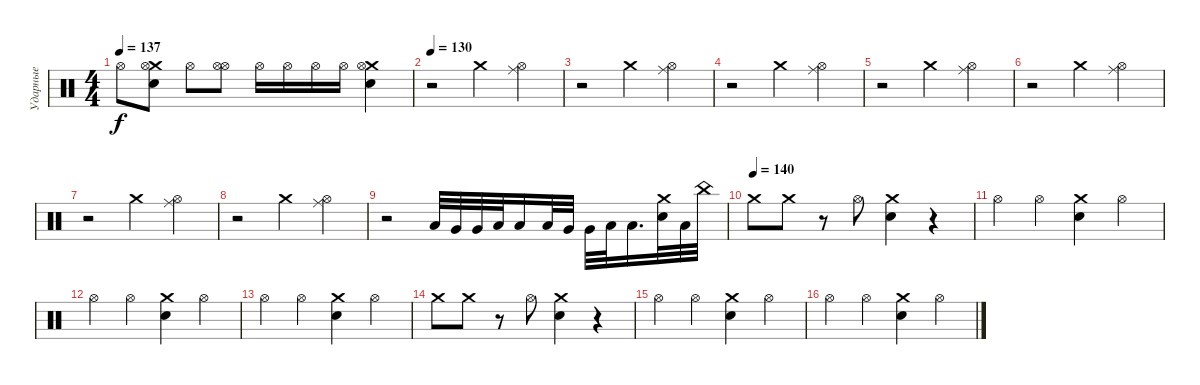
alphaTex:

\track ("Ударные" "Ударные") {instrument percussion}
\staff {score}
\articulation defaults
\ts (4 4)
\tempo 137
\clef neutral
\ks c "Hi-Hat (open)".8{dy f}
("Crash medium (hit)" "Hi-Hat (open)" "Electric Snare (hit)").8 "Hi-Hat (open)".8 ("Hi-Hat (open)" "Hi-Hat (open)").8 "Hi-Hat (open)".16 "Hi-Hat (open)".16 "Hi-Hat (open)".16 "Hi-Hat (open)".16 ("Crash medium (hit)" "Hi-Hat (open)" "Electric Snare (hit)").4 |
\tempo 130
r.2 "Crash medium (hit)".4 ("Ride (middle)" "Hi-Hat (open)").4 |
r.2 "Crash medium (hit)".4 ("Ride (middle)" "Hi-Hat (open)").4 |
r.2 "Crash medium (hit)".4 ("Ride (middle)" "Hi-Hat (open)").4 |
r.2 "Crash medium (hit)".4 ("Ride (middle)" "Hi-Hat (open)").4 |
r.2 "Crash medium (hit)".4 ("Ride (middle)" "Hi-Hat (open)").4 |
r.2 "Crash medium (hit)".4 ("Ride (middle)" "Hi-Hat (open)").4 |
r.2 "Crash medium (hit)".4 ("Ride (middle)" "Hi-Hat (open)").4 |
r.2 "Low Tom (hit)".32 "Very Low Tom (hit)".32 "Very Low Tom (hit)".32 "Low Floor Tom (hit)".32 "Low Floor Tom (hit)".16 "Low Tom (hit)".32 "Very Low Tom (hit)".32 "Very Low Tom (hit)".32 "Low Floor Tom (hit)".32 "Low Floor Tom (hit)".16{d} ("Crash medium (hit)" "Electric Snare (hit)").32 "Low Tom (hit)".32 "China (hit)".32 |
\tempo (140)
"Crash medium (hit)".8 "Crash medium (hit)".8 r.8 "Hi-Hat (open)".8 ("Crash medium (hit)" "Electric Snare (hit)").4 r.4 |
"Hi-Hat (open)".4 "Hi-Hat (open)".4 ("Crash medium (hit)" "Electric Snare (hit)").4 "Hi-Hat (open)".4 |
"Hi-Hat (open)".4 "Hi-Hat (open)".4 ("Crash medium (hit)" "Electric Snare (hit)").4 "Hi-Hat (open)".4 |
"Hi-Hat (open)".4 "Hi-Hat (open)".4 ("Crash medium (hit)" "Electric Snare (hit)").4 "Hi-Hat (open)".4 |
"Crash medium (hit)".8 "Crash medium (hit)".8 r.8 "Hi-Hat (open)".8 ("Crash medium (hit)" "Electric Snare (hit)").4 r.4 |
"Hi-Hat (open)".4 "Hi-Hat (open)".4 ("Crash medium (hit)" "Electric Snare (hit)").4 "Hi-Hat (open)".4 |
"Hi-Hat (open)".4 "Hi-Hat (open)".4 ("Crash medium (hit)" "Electric Snare (hit)").4 "Hi-Hat (open)".4
